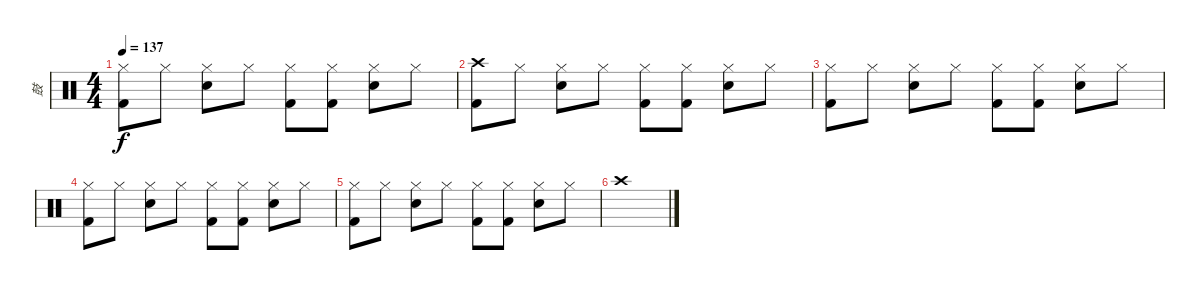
\track ("鼓" "鼓") {instrument percussion}
\staff {score}
\articulation defaults
\ts (4 4)
\tempo 137
\clef neutral
\ks c
("Hi-Hat (closed)" "Kick (hit) 2").8{dy f} "Hi-Hat (closed)".8 ("Hi-Hat (closed)" "Snare (hit) 2").8 "Hi-Hat (closed)".8 ("Hi-Hat (closed)" "Kick (hit) 2").8 ("Hi-Hat (closed)" "Kick (hit) 2").8 ("Hi-Hat (closed)" "Snare (hit) 2").8 "Hi-Hat (closed)".8 |
("Crash high (hit)" "Kick (hit) 2").8 "Hi-Hat (closed)".8 ("Hi-Hat (closed)" "Snare (hit) 2").8 "Hi-Hat (closed)".8 ("Hi-Hat (closed)" "Kick (hit) 2").8 ("Hi-Hat (closed)" "Kick (hit) 2").8 ("Hi-Hat (closed)" "Snare (hit) 2").8 "Hi-Hat (closed)".8 |
("Hi-Hat (closed)" "Kick (hit) 2").8 "Hi-Hat (closed)".8 ("Hi-Hat (closed)" "Snare (hit) 2").8 "Hi-Hat (closed)".8 ("Hi-Hat (closed)" "Kick (hit) 2").8 ("Hi-Hat (closed)" "Kick (hit) 2").8 ("Hi-Hat (closed)" "Snare (hit) 2").8 "Hi-Hat (closed)".8 |
("Hi-Hat (closed)" "Kick (hit) 2").8 "Hi-Hat (closed)".8 ("Hi-Hat (closed)" "Snare (hit) 2").8 "Hi-Hat (closed)".8 ("Hi-Hat (closed)" "Kick (hit) 2").8 ("Hi-Hat (closed)" "Kick (hit) 2").8 ("Hi-Hat (closed)" "Snare (hit) 2").8 "Hi-Hat (closed)".8 |
("Hi-Hat (closed)" "Kick (hit) 2").8 "Hi-Hat (closed)".8 ("Hi-Hat (closed)" "Snare (hit) 2").8 "Hi-Hat (closed)".8 ("Hi-Hat (closed)" "Kick (hit) 2").8 ("Hi-Hat (closed)" "Kick (hit) 2").8 ("Hi-Hat (closed)" "Snare (hit) 2").8 "Hi-Hat (closed)".8 |
"Crash high (hit)".1
